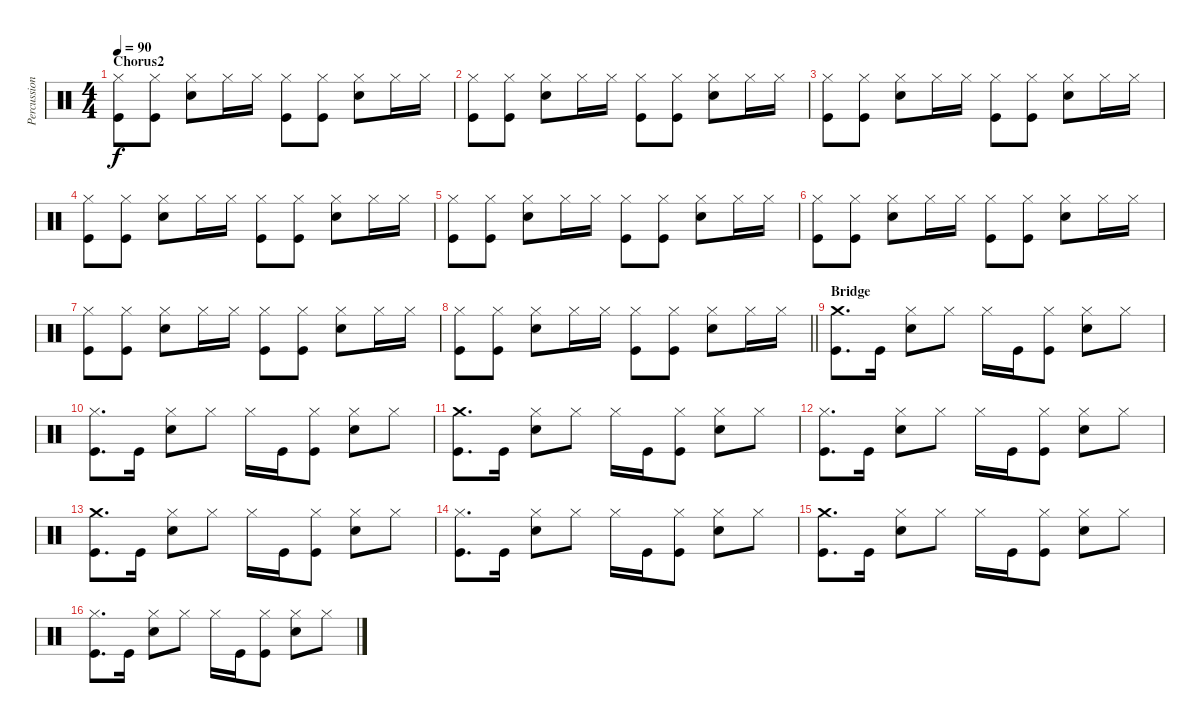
\track ("Percussion" "Percussion") {instrument percussion}
\staff {score}
\articulation defaults
\ts (4 4)
\section ("" "Chorus2")
\tempo 90
\clef neutral
\ks c
("Hi-Hat (closed)" "Kick (hit)").8{dy f} ("Hi-Hat (closed)" "Kick (hit)").8 ("Hi-Hat (closed)" "Snare (hit) 2").8 "Hi-Hat (closed)".16 "Hi-Hat (closed)".16 ("Hi-Hat (closed)" "Kick (hit)").8 ("Hi-Hat (closed)" "Kick (hit)").8 ("Hi-Hat (closed)" "Snare (hit) 2").8 "Hi-Hat (closed)".16 "Hi-Hat (closed)".16 |
("Hi-Hat (closed)" "Kick (hit)").8 ("Hi-Hat (closed)" "Kick (hit)").8 ("Hi-Hat (closed)" "Snare (hit) 2").8 "Hi-Hat (closed)".16 "Hi-Hat (closed)".16 ("Hi-Hat (closed)" "Kick (hit)").8 ("Hi-Hat (closed)" "Kick (hit)").8 ("Hi-Hat (closed)" "Snare (hit) 2").8 "Hi-Hat (closed)".16 "Hi-Hat (closed)".16 |
("Hi-Hat (closed)" "Kick (hit)").8 ("Hi-Hat (closed)" "Kick (hit)").8 ("Hi-Hat (closed)" "Snare (hit) 2").8 "Hi-Hat (closed)".16 "Hi-Hat (closed)".16 ("Hi-Hat (closed)" "Kick (hit)").8 ("Hi-Hat (closed)" "Kick (hit)").8 ("Hi-Hat (closed)" "Snare (hit) 2").8 "Hi-Hat (closed)".16 "Hi-Hat (closed)".16 |
("Hi-Hat (closed)" "Kick (hit)").8 ("Hi-Hat (closed)" "Kick (hit)").8 ("Hi-Hat (closed)" "Snare (hit) 2").8 "Hi-Hat (closed)".16 "Hi-Hat (closed)".16 ("Hi-Hat (closed)" "Kick (hit)").8 ("Hi-Hat (closed)" "Kick (hit)").8 ("Hi-Hat (closed)" "Snare (hit) 2").8 "Hi-Hat (closed)".16 "Hi-Hat (closed)".16 |
("Hi-Hat (closed)" "Kick (hit)").8 ("Hi-Hat (closed)" "Kick (hit)").8 ("Hi-Hat (closed)" "Snare (hit) 2").8 "Hi-Hat (closed)".16 "Hi-Hat (closed)".16 ("Hi-Hat (closed)" "Kick (hit)").8 ("Hi-Hat (closed)" "Kick (hit)").8 ("Hi-Hat (closed)" "Snare (hit) 2").8 "Hi-Hat (closed)".16 "Hi-Hat (closed)".16 |
("Hi-Hat (closed)" "Kick (hit)").8 ("Hi-Hat (closed)" "Kick (hit)").8 ("Hi-Hat (closed)" "Snare (hit) 2").8 "Hi-Hat (closed)".16 "Hi-Hat (closed)".16 ("Hi-Hat (closed)" "Kick (hit)").8 ("Hi-Hat (closed)" "Kick (hit)").8 ("Hi-Hat (closed)" "Snare (hit) 2").8 "Hi-Hat (closed)".16 "Hi-Hat (closed)".16 |
("Hi-Hat (closed)" "Kick (hit)").8 ("Hi-Hat (closed)" "Kick (hit)").8 ("Hi-Hat (closed)" "Snare (hit) 2").8 "Hi-Hat (closed)".16 "Hi-Hat (closed)".16 ("Hi-Hat (closed)" "Kick (hit)").8 ("Hi-Hat (closed)" "Kick (hit)").8 ("Hi-Hat (closed)" "Snare (hit) 2").8 "Hi-Hat (closed)".16 "Hi-Hat (closed)".16 |
\barLineRight lightlight
("Hi-Hat (closed)" "Kick (hit)").8 ("Hi-Hat (closed)" "Kick (hit)").8 ("Hi-Hat (closed)" "Snare (hit) 2").8 "Hi-Hat (closed)".16 "Hi-Hat (closed)".16 ("Hi-Hat (closed)" "Kick (hit)").8 ("Hi-Hat (closed)" "Kick (hit)").8 ("Hi-Hat (closed)" "Snare (hit) 2").8 "Hi-Hat (closed)".16 "Hi-Hat (closed)".16 |
\section ("" "Bridge")
("Crash medium (hit)" "Kick (hit)").8{d} "Kick (hit)".16 ("Hi-Hat (closed)" "Snare (hit) 2").8 "Hi-Hat (closed)".8 "Hi-Hat (closed)".16 "Kick (hit)".16 ("Hi-Hat (closed)" "Kick (hit)").8 ("Hi-Hat (closed)" "Snare (hit) 2").8 "Hi-Hat (closed)".8 |
("Hi-Hat (closed)" "Kick (hit)").8{d} "Kick (hit)".16 ("Hi-Hat (closed)" "Snare (hit) 2").8 "Hi-Hat (closed)".8 "Hi-Hat (closed)".16 "Kick (hit)".16 ("Hi-Hat (closed)" "Kick (hit)").8 ("Hi-Hat (closed)" "Snare (hit) 2").8 "Hi-Hat (closed)".8 |
("Crash medium (hit)" "Kick (hit)").8{d} "Kick (hit)".16 ("Hi-Hat (closed)" "Snare (hit) 2").8 "Hi-Hat (closed)".8 "Hi-Hat (closed)".16 "Kick (hit)".16 ("Hi-Hat (closed)" "Kick (hit)").8 ("Hi-Hat (closed)" "Snare (hit) 2").8 "Hi-Hat (closed)".8 |
("Hi-Hat (closed)" "Kick (hit)").8{d} "Kick (hit)".16 ("Hi-Hat (closed)" "Snare (hit) 2").8 "Hi-Hat (closed)".8 "Hi-Hat (closed)".16 "Kick (hit)".16 ("Hi-Hat (closed)" "Kick (hit)").8 ("Hi-Hat (closed)" "Snare (hit) 2").8 "Hi-Hat (closed)".8 |
("Crash medium (hit)" "Kick (hit)").8{d} "Kick (hit)".16 ("Hi-Hat (closed)" "Snare (hit) 2").8 "Hi-Hat (closed)".8 "Hi-Hat (closed)".16 "Kick (hit)".16 ("Hi-Hat (closed)" "Kick (hit)").8 ("Hi-Hat (closed)" "Snare (hit) 2").8 "Hi-Hat (closed)".8 |
("Hi-Hat (closed)" "Kick (hit)").8{d} "Kick (hit)".16 ("Hi-Hat (closed)" "Snare (hit) 2").8 "Hi-Hat (closed)".8 "Hi-Hat (closed)".16 "Kick (hit)".16 ("Hi-Hat (closed)" "Kick (hit)").8 ("Hi-Hat (closed)" "Snare (hit) 2").8 "Hi-Hat (closed)".8 |
("Crash medium (hit)" "Kick (hit)").8{d} "Kick (hit)".16 ("Hi-Hat (closed)" "Snare (hit) 2").8 "Hi-Hat (closed)".8 "Hi-Hat (closed)".16 "Kick (hit)".16 ("Hi-Hat (closed)" "Kick (hit)").8 ("Hi-Hat (closed)" "Snare (hit) 2").8 "Hi-Hat (closed)".8 |
("Hi-Hat (closed)" "Kick (hit)").8{d} "Kick (hit)".16 ("Hi-Hat (closed)" "Snare (hit) 2").8 "Hi-Hat (closed)".8 "Hi-Hat (closed)".16 "Kick (hit)".16 ("Hi-Hat (closed)" "Kick (hit)").8 ("Hi-Hat (closed)" "Snare (hit) 2").8 "Hi-Hat (closed)".8
